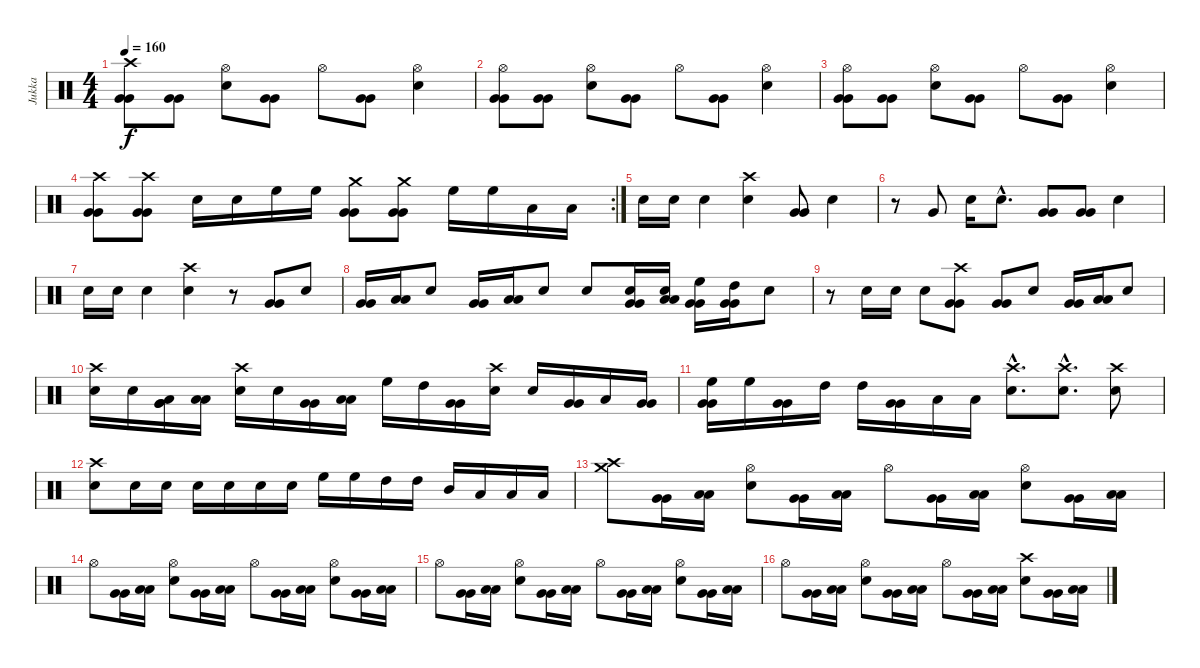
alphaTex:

\track ("Jukka" "Jukka") {instrument percussion}
\staff {score}
\articulation defaults
\ts (4 4)
\tempo 160
\clef neutral
\ks c
("Crash high (hit)" "Very Low Tom (hit)" "Very Low Tom (hit)").8{dy f} ("Very Low Tom (hit)" "Very Low Tom (hit)").8 ("Electric Snare (hit)" "Hi-Hat (open)").8 ("Very Low Tom (hit)" "Very Low Tom (hit)").8 "Hi-Hat (open)".8 ("Very Low Tom (hit)" "Very Low Tom (hit)").8 ("Electric Snare (hit)" "Hi-Hat (open)").4 |
("Hi-Hat (open)" "Very Low Tom (hit)" "Very Low Tom (hit)").8 ("Very Low Tom (hit)" "Very Low Tom (hit)").8 ("Electric Snare (hit)" "Hi-Hat (open)").8 ("Very Low Tom (hit)" "Very Low Tom (hit)").8 "Hi-Hat (open)".8 ("Very Low Tom (hit)" "Very Low Tom (hit)").8 ("Electric Snare (hit)" "Hi-Hat (open)").4 |
("Hi-Hat (open)" "Very Low Tom (hit)" "Very Low Tom (hit)").8 ("Very Low Tom (hit)" "Very Low Tom (hit)").8 ("Electric Snare (hit)" "Hi-Hat (open)").8 ("Very Low Tom (hit)" "Very Low Tom (hit)").8 "Hi-Hat (open)".8 ("Very Low Tom (hit)" "Very Low Tom (hit)").8 ("Electric Snare (hit)" "Hi-Hat (open)").4 |
\rc 2
("Crash high (hit)" "Very Low Tom (hit)" "Very Low Tom (hit)").8 ("Crash high (hit)" "Very Low Tom (hit)" "Very Low Tom (hit)").8 "Electric Snare (hit)".16 "Electric Snare (hit)".16 "High Floor Tom (hit)".16 "High Floor Tom (hit)".16 ("Crash medium (hit)" "Very Low Tom (hit)" "Very Low Tom (hit)").8 ("Crash medium (hit)" "Very Low Tom (hit)" "Very Low Tom (hit)").8 "High Floor Tom (hit)".16 "High Floor Tom (hit)".16 "Low Tom (hit)".16 "Low Tom (hit)".16 |
"Electric Snare (hit)".16 "Electric Snare (hit)".16 "Electric Snare (hit)".4 ("Crash high (hit)" "Electric Snare (hit)").4 ("Very Low Tom (hit)" "Very Low Tom (hit)").8 "Electric Snare (hit)".4 |
r.8 "Very Low Tom (hit)".8 "Electric Snare (hit)".16 "Electric Snare (hit)"{hac}.8{d} ("Very Low Tom (hit)" "Very Low Tom (hit)").8 ("Very Low Tom (hit)" "Very Low Tom (hit)").8 "Electric Snare (hit)".4 |
"Electric Snare (hit)".16 "Electric Snare (hit)".16 "Electric Snare (hit)".4 ("Crash high (hit)" "Electric Snare (hit)").4 r.8 ("Very Low Tom (hit)" "Very Low Tom (hit)").8 "Electric Snare (hit)".8 |
("Very Low Tom (hit)" "Very Low Tom (hit)").16 ("Low Floor Tom (hit)" "Low Floor Tom (hit)").16 "Electric Snare (hit)".8 ("Very Low Tom (hit)" "Very Low Tom (hit)").16 ("Low Floor Tom (hit)" "Low Floor Tom (hit)").16 "Electric Snare (hit)".8 "Electric Snare (hit)".8 ("Electric Snare (hit)" "Very Low Tom (hit)" "Very Low Tom (hit)").16 ("Electric Snare (hit)" "Low Floor Tom (hit)" "Low Floor Tom (hit)").16 ("High Floor Tom (hit)" "Very Low Tom (hit)" "Very Low Tom (hit)").16 ("High Tom (hit)" "Very Low Tom (hit)" "Very Low Tom (hit)").16 "Electric Snare (hit)".8 |
r.8 "Electric Snare (hit)".16 "Electric Snare (hit)".16 "Electric Snare (hit)".8 ("Crash high (hit)" "Very Low Tom (hit)" "Very Low Tom (hit)").8 ("Very Low Tom (hit)" "Very Low Tom (hit)").8 "Electric Snare (hit)".8 ("Very Low Tom (hit)" "Very Low Tom (hit)").16 ("Low Floor Tom (hit)" "Low Floor Tom (hit)").16 "Electric Snare (hit)".8 |
("Crash high (hit)" "Electric Snare (hit)").16 "Electric Snare (hit)".16 ("Low Tom (hit)" "Very Low Tom (hit)" "Very Low Tom (hit)").16 ("Low Floor Tom (hit)" "Low Floor Tom (hit)").16 ("Crash high (hit)" "Electric Snare (hit)").16 "Electric Snare (hit)".16 ("Very Low Tom (hit)" "Very Low Tom (hit)").16 ("Low Floor Tom (hit)" "Low Floor Tom (hit)").16 "High Floor Tom (hit)".16 "High Tom (hit)".16 ("Very Low Tom (hit)" "Very Low Tom (hit)").16 ("Crash high (hit)" "Electric Snare (hit)").16 "Electric Snare (hit)".16 ("Very Low Tom (hit)" "Very Low Tom (hit)").16 "Low Tom (hit)".16 ("Very Low Tom (hit)" "Very Low Tom (hit)").16 |
("High Floor Tom (hit)" "Very Low Tom (hit)" "Very Low Tom (hit)").16 "High Floor Tom (hit)".16 ("Very Low Tom (hit)" "Very Low Tom (hit)").16 "High Tom (hit)".16 "High Tom (hit)".16 ("Very Low Tom (hit)" "Very Low Tom (hit)").16 "Low Tom (hit)".16 "Low Tom (hit)".16 ("Crash high (hit)"{hac} "Electric Snare (hit)"{hac}).8{d} ("Crash high (hit)"{hac} "Electric Snare (hit)"{hac}).8{d} ("Crash high (hit)" "Electric Snare (hit)").8 |
("Crash high (hit)" "Electric Snare (hit)").8 "Electric Snare (hit)".16 "Electric Snare (hit)".16 "Electric Snare (hit)".16 "Electric Snare (hit)".16 "Electric Snare (hit)".16 "Electric Snare (hit)".16 "High Floor Tom (hit)".16 "High Floor Tom (hit)".16 "High Tom (hit)".16 "High Tom (hit)".16 "Mid Tom (hit)".16 "Low Tom (hit)".16 "Low Tom (hit)".16 "Low Tom (hit)".16 |
("Crash medium (hit)" "Crash high (hit)").8 ("Very Low Tom (hit)" "Very Low Tom (hit)").16 ("Low Floor Tom (hit)" "Low Floor Tom (hit)").16 ("Hi-Hat (open)" "Electric Snare (hit)").8 ("Very Low Tom (hit)" "Very Low Tom (hit)").16 ("Low Floor Tom (hit)" "Low Floor Tom (hit)").16 "Hi-Hat (open)".8 ("Very Low Tom (hit)" "Very Low Tom (hit)").16 ("Low Floor Tom (hit)" "Low Floor Tom (hit)").16 ("Hi-Hat (open)" "Electric Snare (hit)").8 ("Very Low Tom (hit)" "Very Low Tom (hit)").16 ("Low Floor Tom (hit)" "Low Floor Tom (hit)").16 |
"Hi-Hat (open)".8 ("Very Low Tom (hit)" "Very Low Tom (hit)").16 ("Low Floor Tom (hit)" "Low Floor Tom (hit)").16 ("Hi-Hat (open)" "Electric Snare (hit)").8 ("Very Low Tom (hit)" "Very Low Tom (hit)").16 ("Low Floor Tom (hit)" "Low Floor Tom (hit)").16 "Hi-Hat (open)".8 ("Very Low Tom (hit)" "Very Low Tom (hit)").16 ("Low Floor Tom (hit)" "Low Floor Tom (hit)").16 ("Hi-Hat (open)" "Electric Snare (hit)").8 ("Very Low Tom (hit)" "Very Low Tom (hit)").16 ("Low Floor Tom (hit)" "Low Floor Tom (hit)").16 |
"Hi-Hat (open)".8 ("Very Low Tom (hit)" "Very Low Tom (hit)").16 ("Low Floor Tom (hit)" "Low Floor Tom (hit)").16 ("Hi-Hat (open)" "Electric Snare (hit)").8 ("Very Low Tom (hit)" "Very Low Tom (hit)").16 ("Low Floor Tom (hit)" "Low Floor Tom (hit)").16 "Hi-Hat (open)".8 ("Very Low Tom (hit)" "Very Low Tom (hit)").16 ("Low Floor Tom (hit)" "Low Floor Tom (hit)").16 ("Hi-Hat (open)" "Electric Snare (hit)").8 ("Very Low Tom (hit)" "Very Low Tom (hit)").16 ("Low Floor Tom (hit)" "Low Floor Tom (hit)").16 |
"Hi-Hat (open)".8 ("Very Low Tom (hit)" "Very Low Tom (hit)").16 ("Low Floor Tom (hit)" "Low Floor Tom (hit)").16 ("Hi-Hat (open)" "Electric Snare (hit)").8 ("Very Low Tom (hit)" "Very Low Tom (hit)").16 ("Low Floor Tom (hit)" "Low Floor Tom (hit)").16 "Hi-Hat (open)".8 ("Very Low Tom (hit)" "Very Low Tom (hit)").16 ("Low Floor Tom (hit)" "Low Floor Tom (hit)").16 ("Crash high (hit)" "Electric Snare (hit)").8 ("Very Low Tom (hit)" "Very Low Tom (hit)").16 ("Low Floor Tom (hit)" "Low Floor Tom (hit)").16
